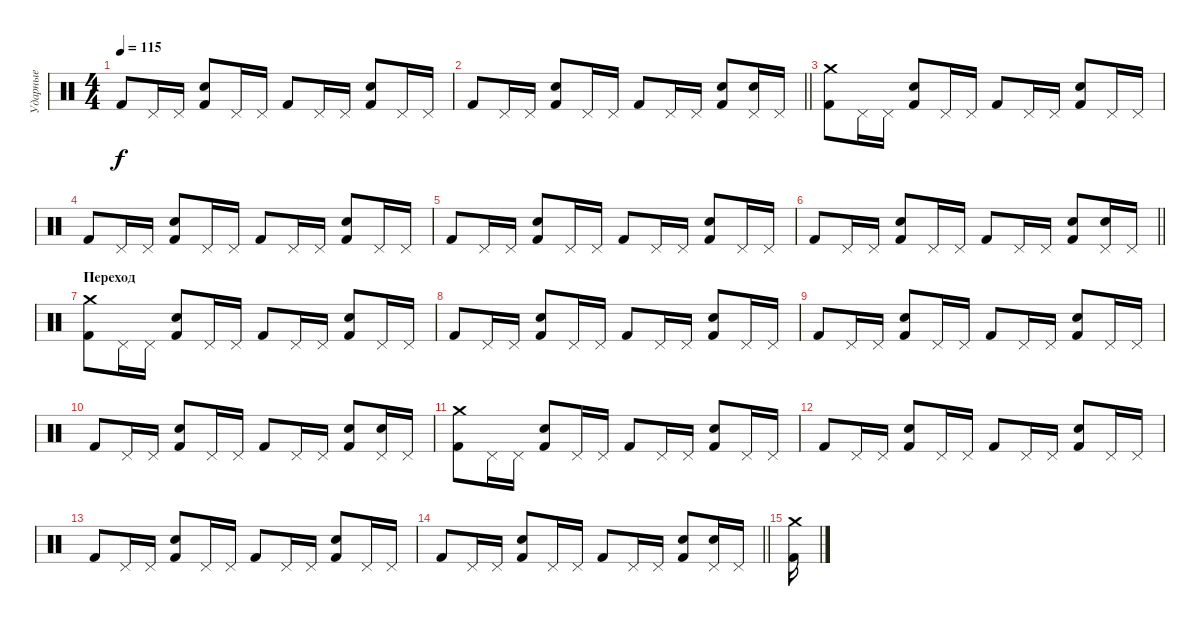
\track ("Ударные" "Ударные") {instrument percussion}
\staff {score}
\articulation defaults
\ts (4 4)
\tempo 115
\clef neutral
\ks c "Kick (hit) 2".8{dy f} "Pedal Hi-Hat (hit)".16 "Pedal Hi-Hat (hit)".16
("Kick (hit) 2" "Electric Snare (hit)").8 "Pedal Hi-Hat (hit)".16 "Pedal Hi-Hat (hit)".16 "Kick (hit) 2".8 "Pedal Hi-Hat (hit)".16 "Pedal Hi-Hat (hit)".16 ("Kick (hit) 2" "Electric Snare (hit)").8 "Pedal Hi-Hat (hit)".16 "Pedal Hi-Hat (hit)".16 |
\barLineRight lightlight "Kick (hit) 2".8 "Pedal Hi-Hat (hit)".16 "Pedal Hi-Hat (hit)".16
("Kick (hit) 2" "Electric Snare (hit)").8 "Pedal Hi-Hat (hit)".16 "Pedal Hi-Hat (hit)".16 "Kick (hit) 2".8 "Pedal Hi-Hat (hit)".16 "Pedal Hi-Hat (hit)".16 ("Kick (hit) 2" "Electric Snare (hit)").8 ("Pedal Hi-Hat (hit)" "Electric Snare (hit)").16 "Pedal Hi-Hat (hit)".16 |
("Kick (hit) 2" "Crash medium (hit)").8 "Pedal Hi-Hat (hit)".16 "Pedal Hi-Hat (hit)".16 ("Kick (hit) 2" "Electric Snare (hit)").8 "Pedal Hi-Hat (hit)".16 "Pedal Hi-Hat (hit)".16 "Kick (hit) 2".8 "Pedal Hi-Hat (hit)".16 "Pedal Hi-Hat (hit)".16 ("Kick (hit) 2" "Electric Snare (hit)").8 "Pedal Hi-Hat (hit)".16 "Pedal Hi-Hat (hit)".16 |
"Kick (hit) 2".8 "Pedal Hi-Hat (hit)".16 "Pedal Hi-Hat (hit)".16 ("Kick (hit) 2" "Electric Snare (hit)").8 "Pedal Hi-Hat (hit)".16 "Pedal Hi-Hat (hit)".16 "Kick (hit) 2".8 "Pedal Hi-Hat (hit)".16 "Pedal Hi-Hat (hit)".16 ("Kick (hit) 2" "Electric Snare (hit)").8 "Pedal Hi-Hat (hit)".16 "Pedal Hi-Hat (hit)".16 |
"Kick (hit) 2".8 "Pedal Hi-Hat (hit)".16 "Pedal Hi-Hat (hit)".16 ("Kick (hit) 2" "Electric Snare (hit)").8 "Pedal Hi-Hat (hit)".16 "Pedal Hi-Hat (hit)".16 "Kick (hit) 2".8 "Pedal Hi-Hat (hit)".16 "Pedal Hi-Hat (hit)".16 ("Kick (hit) 2" "Electric Snare (hit)").8 "Pedal Hi-Hat (hit)".16 "Pedal Hi-Hat (hit)".16 |
\barLineRight lightlight "Kick (hit) 2".8 "Pedal Hi-Hat (hit)".16 "Pedal Hi-Hat (hit)".16
("Kick (hit) 2" "Electric Snare (hit)").8 "Pedal Hi-Hat (hit)".16 "Pedal Hi-Hat (hit)".16 "Kick (hit) 2".8 "Pedal Hi-Hat (hit)".16 "Pedal Hi-Hat (hit)".16 ("Kick (hit) 2" "Electric Snare (hit)").8 ("Pedal Hi-Hat (hit)" "Electric Snare (hit)").16 "Pedal Hi-Hat (hit)".16 |
\section ("" "Переход")
("Kick (hit) 2" "Crash medium (hit)").8 "Pedal Hi-Hat (hit)".16 "Pedal Hi-Hat (hit)".16 ("Kick (hit) 2" "Electric Snare (hit)").8 "Pedal Hi-Hat (hit)".16 "Pedal Hi-Hat (hit)".16 "Kick (hit) 2".8 "Pedal Hi-Hat (hit)".16 "Pedal Hi-Hat (hit)".16 ("Kick (hit) 2" "Electric Snare (hit)").8 "Pedal Hi-Hat (hit)".16 "Pedal Hi-Hat (hit)".16 |
"Kick (hit) 2".8 "Pedal Hi-Hat (hit)".16 "Pedal Hi-Hat (hit)".16 ("Kick (hit) 2" "Electric Snare (hit)").8 "Pedal Hi-Hat (hit)".16 "Pedal Hi-Hat (hit)".16 "Kick (hit) 2".8 "Pedal Hi-Hat (hit)".16 "Pedal Hi-Hat (hit)".16 ("Kick (hit) 2" "Electric Snare (hit)").8 "Pedal Hi-Hat (hit)".16 "Pedal Hi-Hat (hit)".16 |
"Kick (hit) 2".8 "Pedal Hi-Hat (hit)".16 "Pedal Hi-Hat (hit)".16 ("Kick (hit) 2" "Electric Snare (hit)").8 "Pedal Hi-Hat (hit)".16 "Pedal Hi-Hat (hit)".16 "Kick (hit) 2".8 "Pedal Hi-Hat (hit)".16 "Pedal Hi-Hat (hit)".16 ("Kick (hit) 2" "Electric Snare (hit)").8 "Pedal Hi-Hat (hit)".16 "Pedal Hi-Hat (hit)".16 |
"Kick (hit) 2".8 "Pedal Hi-Hat (hit)".16 "Pedal Hi-Hat (hit)".16 ("Kick (hit) 2" "Electric Snare (hit)").8 "Pedal Hi-Hat (hit)".16 "Pedal Hi-Hat (hit)".16 "Kick (hit) 2".8 "Pedal Hi-Hat (hit)".16 "Pedal Hi-Hat (hit)".16 ("Kick (hit) 2" "Electric Snare (hit)").8 ("Pedal Hi-Hat (hit)" "Electric Snare (hit)").16 "Pedal Hi-Hat (hit)".16 |
("Kick (hit) 2" "Crash medium (hit)").8 "Pedal Hi-Hat (hit)".16 "Pedal Hi-Hat (hit)".16 ("Kick (hit) 2" "Electric Snare (hit)").8 "Pedal Hi-Hat (hit)".16 "Pedal Hi-Hat (hit)".16 "Kick (hit) 2".8 "Pedal Hi-Hat (hit)".16 "Pedal Hi-Hat (hit)".16 ("Kick (hit) 2" "Electric Snare (hit)").8 "Pedal Hi-Hat (hit)".16 "Pedal Hi-Hat (hit)".16 |
"Kick (hit) 2".8 "Pedal Hi-Hat (hit)".16 "Pedal Hi-Hat (hit)".16 ("Kick (hit) 2" "Electric Snare (hit)").8 "Pedal Hi-Hat (hit)".16 "Pedal Hi-Hat (hit)".16 "Kick (hit) 2".8 "Pedal Hi-Hat (hit)".16 "Pedal Hi-Hat (hit)".16 ("Kick (hit) 2" "Electric Snare (hit)").8 "Pedal Hi-Hat (hit)".16 "Pedal Hi-Hat (hit)".16 |
"Kick (hit) 2".8 "Pedal Hi-Hat (hit)".16 "Pedal Hi-Hat (hit)".16 ("Kick (hit) 2" "Electric Snare (hit)").8 "Pedal Hi-Hat (hit)".16 "Pedal Hi-Hat (hit)".16 "Kick (hit) 2".8 "Pedal Hi-Hat (hit)".16 "Pedal Hi-Hat (hit)".16 ("Kick (hit) 2" "Electric Snare (hit)").8 "Pedal Hi-Hat (hit)".16 "Pedal Hi-Hat (hit)".16 |
\barLineRight lightlight "Kick (hit) 2".8 "Pedal Hi-Hat (hit)".16 "Pedal Hi-Hat (hit)".16
("Kick (hit) 2" "Electric Snare (hit)").8 "Pedal Hi-Hat (hit)".16 "Pedal Hi-Hat (hit)".16 "Kick (hit) 2".8 "Pedal Hi-Hat (hit)".16 "Pedal Hi-Hat (hit)".16 ("Kick (hit) 2" "Electric Snare (hit)").8 ("Pedal Hi-Hat (hit)" "Electric Snare (hit)").16 "Pedal Hi-Hat (hit)".16 |
("Kick (hit) 2" "Crash medium (hit)").16
